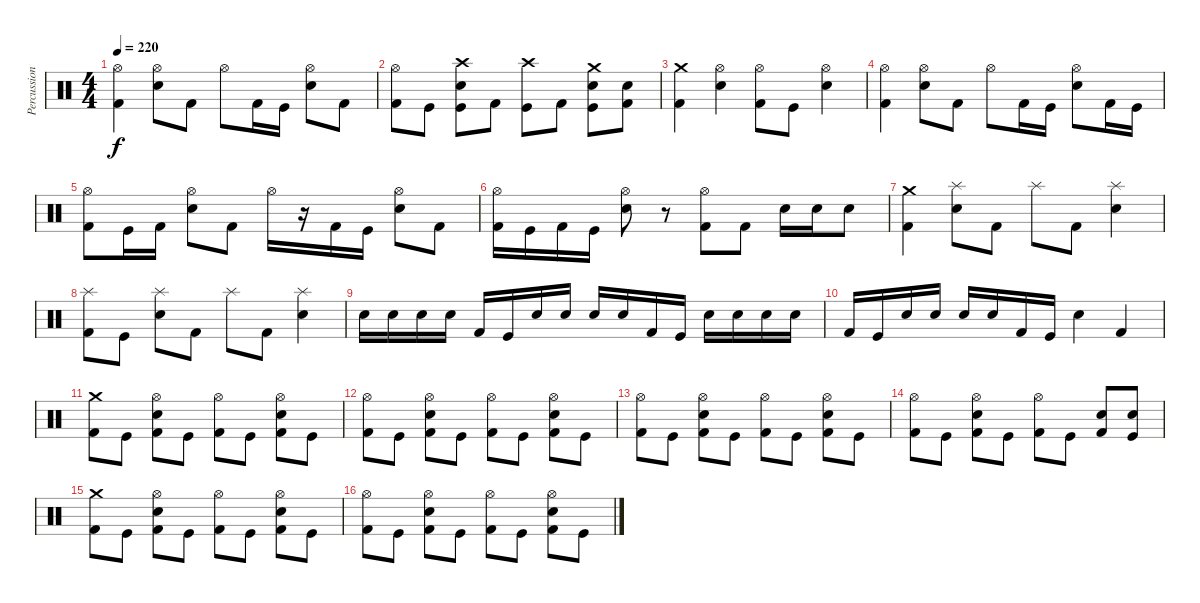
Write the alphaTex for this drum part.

\track ("Percussion" "Percussion") {instrument percussion}
\staff {score}
\articulation defaults
\ts (4 4)
\tempo 220
\clef neutral
\ks c
("Hi-Hat (open)" "Kick (hit) 2").4{dy f} ("Hi-Hat (open)" "Snare (hit) 2").8 "Kick (hit) 2".8 "Hi-Hat (open)".8 "Kick (hit) 2".16 "Kick (hit)".16 ("Hi-Hat (open)" "Snare (hit) 2").8 "Kick (hit) 2".8 |
("Hi-Hat (open)" "Kick (hit) 2").8 "Kick (hit)".8 ("Crash high (hit)" "Snare (hit) 2" "Kick (hit)").8 "Kick (hit) 2".8 ("Crash high (hit)" "Kick (hit)").8 "Kick (hit) 2".8 ("Crash medium (hit)" "Snare (hit) 2" "Kick (hit)").8 ("Snare (hit) 2" "Kick (hit) 2").8 |
("Crash medium (hit)" "Kick (hit) 2").4 ("Hi-Hat (open)" "Snare (hit) 2").4 ("Hi-Hat (open)" "Kick (hit) 2").8 "Kick (hit)".8 ("Hi-Hat (open)" "Snare (hit) 2").4 |
("Hi-Hat (open)" "Kick (hit) 2").4 ("Hi-Hat (open)" "Snare (hit) 2").8 "Kick (hit) 2".8 "Hi-Hat (open)".8 "Kick (hit) 2".16 "Kick (hit)".16 ("Hi-Hat (open)" "Snare (hit) 2").8 "Kick (hit) 2".16 "Kick (hit)".16 |
("Hi-Hat (open)" "Kick (hit) 2").8 "Kick (hit)".16 "Kick (hit) 2".16 ("Hi-Hat (open)" "Snare (hit) 2").8 "Kick (hit) 2".8 "Hi-Hat (open)".16 r.16 "Kick (hit) 2".16 "Kick (hit)".16 ("Hi-Hat (open)" "Snare (hit) 2").8 "Kick (hit) 2".8 |
("Hi-Hat (open)" "Kick (hit) 2").16 "Kick (hit)".16 "Kick (hit) 2".16 "Kick (hit)".16 ("Hi-Hat (open)" "Snare (hit) 2").8 r.8 ("Hi-Hat (open)" "Kick (hit) 2").8 "Kick (hit) 2".8 "Snare (hit) 2".16 "Snare (hit) 2".16 "Snare (hit) 2".8 |
("Crash medium (hit)" "Kick (hit) 2").4 ("Splash (hit)" "Snare (hit) 2").8 "Kick (hit) 2".8 "Splash (hit)".8 "Kick (hit) 2".8 ("Splash (hit)" "Snare (hit) 2").4 |
("Splash (hit)" "Kick (hit) 2").8 "Kick (hit)".8 ("Splash (hit)" "Snare (hit) 2").8 "Kick (hit) 2".8 "Splash (hit)".8 "Kick (hit) 2".8 ("Splash (hit)" "Snare (hit) 2").4 |
"Snare (hit) 2".16 "Snare (hit) 2".16 "Snare (hit) 2".16 "Snare (hit) 2".16 "Kick (hit) 2".16 "Kick (hit)".16 "Snare (hit) 2".16 "Snare (hit) 2".16 "Snare (hit) 2".16 "Snare (hit) 2".16 "Kick (hit) 2".16 "Kick (hit)".16 "Snare (hit) 2".16 "Snare (hit) 2".16 "Snare (hit) 2".16 "Snare (hit) 2".16 |
"Kick (hit) 2".16 "Kick (hit)".16 "Snare (hit) 2".16 "Snare (hit) 2".16 "Snare (hit) 2".16 "Snare (hit) 2".16 "Kick (hit) 2".16 "Kick (hit)".16 "Snare (hit) 2".4 "Kick (hit) 2".4 |
("Crash medium (hit)" "Kick (hit) 2").8 "Kick (hit)".8 ("Hi-Hat (open)" "Snare (hit) 2" "Kick (hit) 2").8 "Kick (hit)".8 ("Hi-Hat (open)" "Kick (hit) 2").8 "Kick (hit)".8 ("Hi-Hat (open)" "Snare (hit) 2" "Kick (hit) 2").8 "Kick (hit)".8 |
("Hi-Hat (open)" "Kick (hit) 2").8 "Kick (hit)".8 ("Hi-Hat (open)" "Snare (hit) 2" "Kick (hit) 2").8 "Kick (hit)".8 ("Hi-Hat (open)" "Kick (hit) 2").8 "Kick (hit)".8 ("Hi-Hat (open)" "Snare (hit) 2" "Kick (hit) 2").8 "Kick (hit)".8 |
("Hi-Hat (open)" "Kick (hit) 2").8 "Kick (hit)".8 ("Hi-Hat (open)" "Snare (hit) 2" "Kick (hit) 2").8 "Kick (hit)".8 ("Hi-Hat (open)" "Kick (hit) 2").8 "Kick (hit)".8 ("Hi-Hat (open)" "Snare (hit) 2" "Kick (hit) 2").8 "Kick (hit)".8 |
("Hi-Hat (open)" "Kick (hit) 2").8 "Kick (hit)".8 ("Hi-Hat (open)" "Snare (hit) 2" "Kick (hit) 2").8 "Kick (hit)".8 ("Hi-Hat (open)" "Kick (hit) 2").8 "Kick (hit)".8 ("Snare (hit) 2" "Kick (hit) 2").8 ("Snare (hit) 2" "Kick (hit)").8 |
("Crash medium (hit)" "Kick (hit) 2").8 "Kick (hit)".8 ("Hi-Hat (open)" "Snare (hit) 2" "Kick (hit) 2").8 "Kick (hit)".8 ("Hi-Hat (open)" "Kick (hit) 2").8 "Kick (hit)".8 ("Hi-Hat (open)" "Snare (hit) 2" "Kick (hit) 2").8 "Kick (hit)".8 |
("Hi-Hat (open)" "Kick (hit) 2").8 "Kick (hit)".8 ("Hi-Hat (open)" "Snare (hit) 2" "Kick (hit) 2").8 "Kick (hit)".8 ("Hi-Hat (open)" "Kick (hit) 2").8 "Kick (hit)".8 ("Hi-Hat (open)" "Snare (hit) 2" "Kick (hit) 2").8 "Kick (hit)".8
